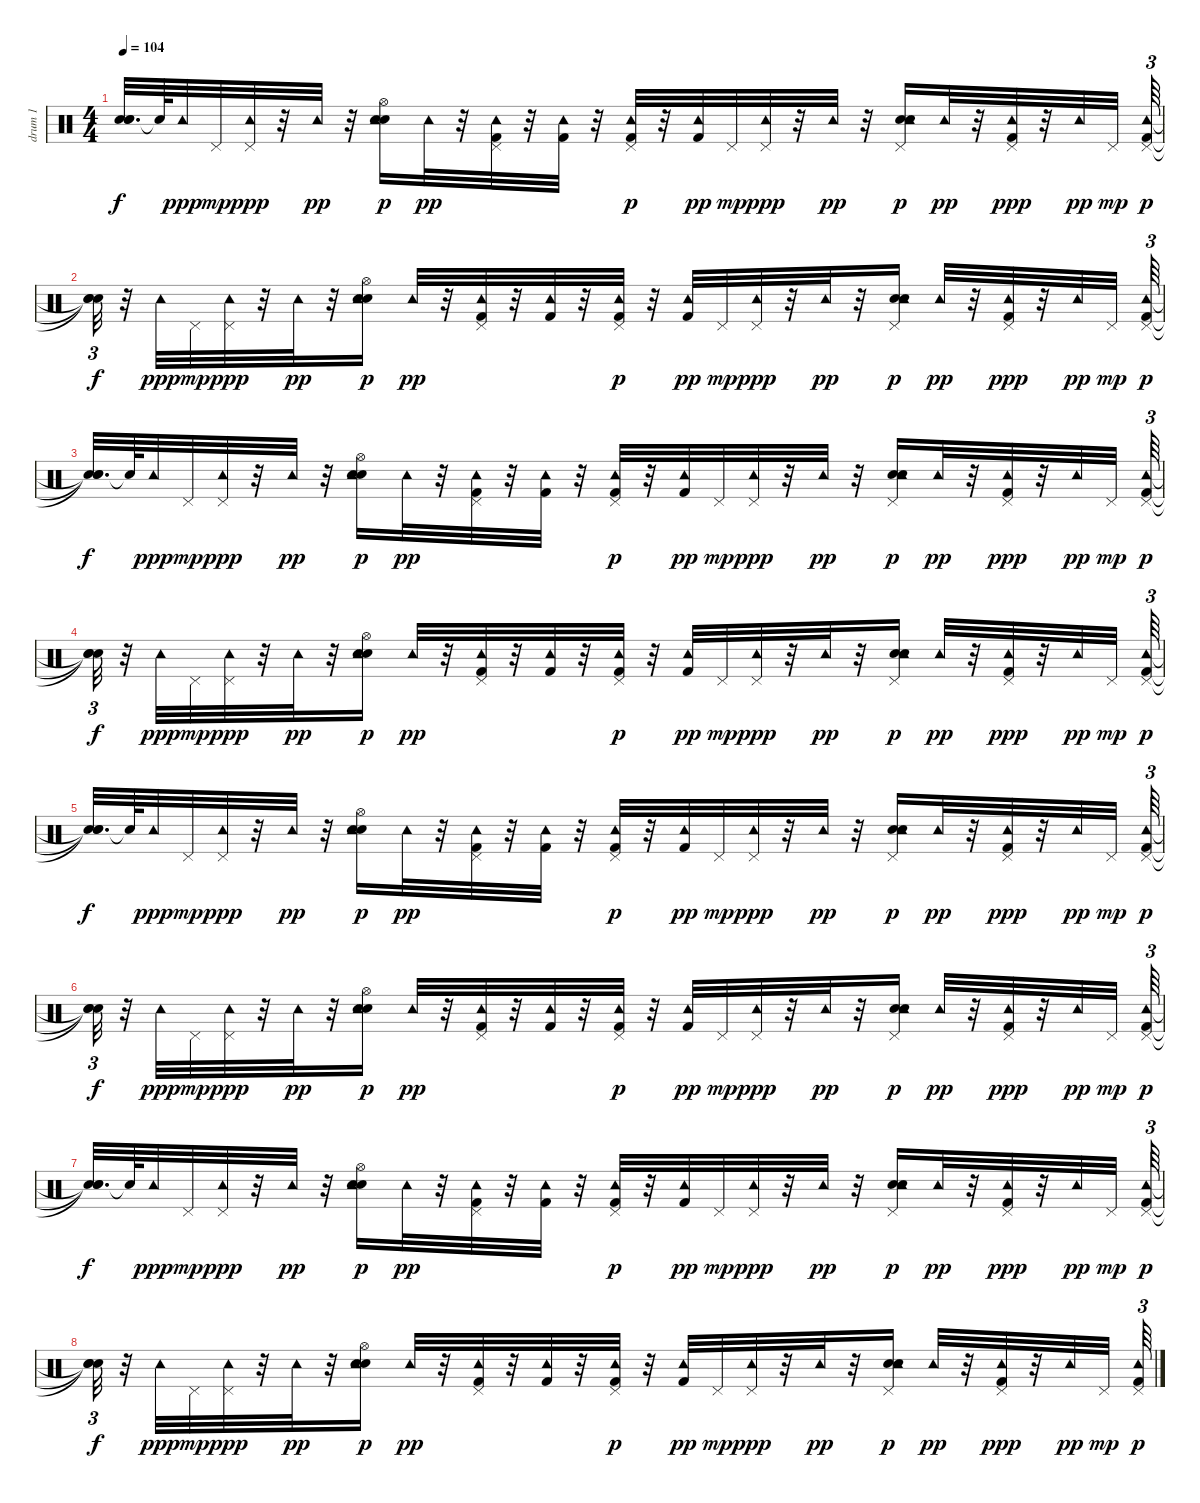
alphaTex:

\track ("drum 1" "drum 1") {instrument percussion}
\staff {score}
\articulation defaults
\ts (4 4)
\tempo 104
\clef neutral
\ks c
("Snare (hit)"{t} "Snare (hit)"{t} "Snare (hit)"{t}).32{d dy f} "Snare (hit)"{t}.64 "Tambourine (hit)".32{dy ppp} "Pedal Hi-Hat (hit)".32{dy mp} ("Pedal Hi-Hat (hit)" "Tambourine (hit)").32{dy ppp} r.32 "Tambourine (hit)".32{dy pp} r.32 ("Hand Clap (hit)" "Electric Snare (hit)" "Hi-Hat (open)" "Tambourine (hit)").16{dy p} "Tambourine (hit)".32{dy pp} r.32 ("Kick (hit) 2" "Pedal Hi-Hat (hit)" "Tambourine (hit)").32 r.32 ("Kick (hit) 2" "Tambourine (hit)").32 r.32 ("Kick (hit) 2" "Pedal Hi-Hat (hit)" "Tambourine (hit)").32{dy p} r.32 ("Kick (hit) 2" "Tambourine (hit)").32{dy pp} "Pedal Hi-Hat (hit)".32{dy mp} ("Pedal Hi-Hat (hit)" "Tambourine (hit)").32{dy ppp} r.32 "Tambourine (hit)".32{dy pp} r.32 ("Hand Clap (hit)" "Electric Snare (hit)" "Pedal Hi-Hat (hit)" "Tambourine (hit)").16{dy p} "Tambourine (hit)".32{dy pp} r.32 ("Kick (hit) 2" "Pedal Hi-Hat (hit)" "Tambourine (hit)").32{dy ppp} r.32 "Tambourine (hit)".32{dy pp} "Pedal Hi-Hat (hit)".32{dy mp} ("Kick (hit) 2" "Pedal Hi-Hat (hit)" "Tambourine (hit)").64{tu (3 2) dy p} |
("Snare (hit)"{t} "Snare (hit)"{t} "Snare (hit)"{t}).32{tu (3 2) dy f} r.32 "Tambourine (hit)".32{dy ppp} "Pedal Hi-Hat (hit)".32{dy mp} ("Pedal Hi-Hat (hit)" "Tambourine (hit)").32{dy ppp} r.32 "Tambourine (hit)".32{dy pp} r.32 ("Hand Clap (hit)" "Electric Snare (hit)" "Hi-Hat (open)" "Tambourine (hit)").16{dy p} "Tambourine (hit)".32{dy pp} r.32 ("Kick (hit) 2" "Pedal Hi-Hat (hit)" "Tambourine (hit)").32 r.32 ("Kick (hit) 2" "Tambourine (hit)").32 r.32 ("Kick (hit) 2" "Pedal Hi-Hat (hit)" "Tambourine (hit)").32{dy p} r.32 ("Kick (hit) 2" "Tambourine (hit)").32{dy pp} "Pedal Hi-Hat (hit)".32{dy mp} ("Pedal Hi-Hat (hit)" "Tambourine (hit)").32{dy ppp} r.32 "Tambourine (hit)".32{dy pp} r.32 ("Hand Clap (hit)" "Electric Snare (hit)" "Pedal Hi-Hat (hit)" "Tambourine (hit)").16{dy p} "Tambourine (hit)".32{dy pp} r.32 ("Kick (hit) 2" "Pedal Hi-Hat (hit)" "Tambourine (hit)").32{dy ppp} r.32 "Tambourine (hit)".32{dy pp} "Pedal Hi-Hat (hit)".32{dy mp beam splitsecondary} ("Kick (hit) 2" "Pedal Hi-Hat (hit)" "Tambourine (hit)").64{tu (3 2) dy p} |
("Snare (hit)"{t} "Snare (hit)"{t} "Snare (hit)"{t}).32{d dy f} "Snare (hit)"{t}.64 "Tambourine (hit)".32{dy ppp} "Pedal Hi-Hat (hit)".32{dy mp} ("Pedal Hi-Hat (hit)" "Tambourine (hit)").32{dy ppp} r.32 "Tambourine (hit)".32{dy pp} r.32 ("Hand Clap (hit)" "Electric Snare (hit)" "Hi-Hat (open)" "Tambourine (hit)").16{dy p} "Tambourine (hit)".32{dy pp} r.32 ("Kick (hit) 2" "Pedal Hi-Hat (hit)" "Tambourine (hit)").32 r.32 ("Kick (hit) 2" "Tambourine (hit)").32 r.32 ("Kick (hit) 2" "Pedal Hi-Hat (hit)" "Tambourine (hit)").32{dy p} r.32 ("Kick (hit) 2" "Tambourine (hit)").32{dy pp} "Pedal Hi-Hat (hit)".32{dy mp} ("Pedal Hi-Hat (hit)" "Tambourine (hit)").32{dy ppp} r.32 "Tambourine (hit)".32{dy pp} r.32 ("Hand Clap (hit)" "Electric Snare (hit)" "Pedal Hi-Hat (hit)" "Tambourine (hit)").16{dy p} "Tambourine (hit)".32{dy pp} r.32 ("Kick (hit) 2" "Pedal Hi-Hat (hit)" "Tambourine (hit)").32{dy ppp} r.32 "Tambourine (hit)".32{dy pp} "Pedal Hi-Hat (hit)".32{dy mp} ("Kick (hit) 2" "Pedal Hi-Hat (hit)" "Tambourine (hit)").64{tu (3 2) dy p} |
("Snare (hit)"{t} "Snare (hit)"{t} "Snare (hit)"{t}).32{tu (3 2) dy f} r.32 "Tambourine (hit)".32{dy ppp} "Pedal Hi-Hat (hit)".32{dy mp} ("Pedal Hi-Hat (hit)" "Tambourine (hit)").32{dy ppp} r.32 "Tambourine (hit)".32{dy pp} r.32 ("Hand Clap (hit)" "Electric Snare (hit)" "Hi-Hat (open)" "Tambourine (hit)").16{dy p} "Tambourine (hit)".32{dy pp} r.32 ("Kick (hit) 2" "Pedal Hi-Hat (hit)" "Tambourine (hit)").32 r.32 ("Kick (hit) 2" "Tambourine (hit)").32 r.32 ("Kick (hit) 2" "Pedal Hi-Hat (hit)" "Tambourine (hit)").32{dy p} r.32 ("Kick (hit) 2" "Tambourine (hit)").32{dy pp} "Pedal Hi-Hat (hit)".32{dy mp} ("Pedal Hi-Hat (hit)" "Tambourine (hit)").32{dy ppp} r.32 "Tambourine (hit)".32{dy pp} r.32 ("Hand Clap (hit)" "Electric Snare (hit)" "Pedal Hi-Hat (hit)" "Tambourine (hit)").16{dy p} "Tambourine (hit)".32{dy pp} r.32 ("Kick (hit) 2" "Pedal Hi-Hat (hit)" "Tambourine (hit)").32{dy ppp} r.32 "Tambourine (hit)".32{dy pp} "Pedal Hi-Hat (hit)".32{dy mp beam splitsecondary} ("Kick (hit) 2" "Pedal Hi-Hat (hit)" "Tambourine (hit)").64{tu (3 2) dy p} |
("Snare (hit)"{t} "Snare (hit)"{t} "Snare (hit)"{t}).32{d dy f} "Snare (hit)"{t}.64 "Tambourine (hit)".32{dy ppp} "Pedal Hi-Hat (hit)".32{dy mp} ("Pedal Hi-Hat (hit)" "Tambourine (hit)").32{dy ppp} r.32 "Tambourine (hit)".32{dy pp} r.32 ("Hand Clap (hit)" "Electric Snare (hit)" "Hi-Hat (open)" "Tambourine (hit)").16{dy p} "Tambourine (hit)".32{dy pp} r.32 ("Kick (hit) 2" "Pedal Hi-Hat (hit)" "Tambourine (hit)").32 r.32 ("Kick (hit) 2" "Tambourine (hit)").32 r.32 ("Kick (hit) 2" "Pedal Hi-Hat (hit)" "Tambourine (hit)").32{dy p} r.32 ("Kick (hit) 2" "Tambourine (hit)").32{dy pp} "Pedal Hi-Hat (hit)".32{dy mp} ("Pedal Hi-Hat (hit)" "Tambourine (hit)").32{dy ppp} r.32 "Tambourine (hit)".32{dy pp} r.32 ("Hand Clap (hit)" "Electric Snare (hit)" "Pedal Hi-Hat (hit)" "Tambourine (hit)").16{dy p} "Tambourine (hit)".32{dy pp} r.32 ("Kick (hit) 2" "Pedal Hi-Hat (hit)" "Tambourine (hit)").32{dy ppp} r.32 "Tambourine (hit)".32{dy pp} "Pedal Hi-Hat (hit)".32{dy mp} ("Kick (hit) 2" "Pedal Hi-Hat (hit)" "Tambourine (hit)").64{tu (3 2) dy p} |
("Snare (hit)"{t} "Snare (hit)"{t} "Snare (hit)"{t}).32{tu (3 2) dy f} r.32 "Tambourine (hit)".32{dy ppp} "Pedal Hi-Hat (hit)".32{dy mp} ("Pedal Hi-Hat (hit)" "Tambourine (hit)").32{dy ppp} r.32 "Tambourine (hit)".32{dy pp} r.32 ("Hand Clap (hit)" "Electric Snare (hit)" "Hi-Hat (open)" "Tambourine (hit)").16{dy p} "Tambourine (hit)".32{dy pp} r.32 ("Kick (hit) 2" "Pedal Hi-Hat (hit)" "Tambourine (hit)").32 r.32 ("Kick (hit) 2" "Tambourine (hit)").32 r.32 ("Kick (hit) 2" "Pedal Hi-Hat (hit)" "Tambourine (hit)").32{dy p} r.32 ("Kick (hit) 2" "Tambourine (hit)").32{dy pp} "Pedal Hi-Hat (hit)".32{dy mp} ("Pedal Hi-Hat (hit)" "Tambourine (hit)").32{dy ppp} r.32 "Tambourine (hit)".32{dy pp} r.32 ("Hand Clap (hit)" "Electric Snare (hit)" "Pedal Hi-Hat (hit)" "Tambourine (hit)").16{dy p} "Tambourine (hit)".32{dy pp} r.32 ("Kick (hit) 2" "Pedal Hi-Hat (hit)" "Tambourine (hit)").32{dy ppp} r.32 "Tambourine (hit)".32{dy pp} "Pedal Hi-Hat (hit)".32{dy mp beam splitsecondary} ("Kick (hit) 2" "Pedal Hi-Hat (hit)" "Tambourine (hit)").64{tu (3 2) dy p} |
("Snare (hit)"{t} "Snare (hit)"{t} "Snare (hit)"{t}).32{d dy f} "Snare (hit)"{t}.64 "Tambourine (hit)".32{dy ppp} "Pedal Hi-Hat (hit)".32{dy mp} ("Pedal Hi-Hat (hit)" "Tambourine (hit)").32{dy ppp} r.32 "Tambourine (hit)".32{dy pp} r.32 ("Hand Clap (hit)" "Electric Snare (hit)" "Hi-Hat (open)" "Tambourine (hit)").16{dy p} "Tambourine (hit)".32{dy pp} r.32 ("Kick (hit) 2" "Pedal Hi-Hat (hit)" "Tambourine (hit)").32 r.32 ("Kick (hit) 2" "Tambourine (hit)").32 r.32 ("Kick (hit) 2" "Pedal Hi-Hat (hit)" "Tambourine (hit)").32{dy p} r.32 ("Kick (hit) 2" "Tambourine (hit)").32{dy pp} "Pedal Hi-Hat (hit)".32{dy mp} ("Pedal Hi-Hat (hit)" "Tambourine (hit)").32{dy ppp} r.32 "Tambourine (hit)".32{dy pp} r.32 ("Hand Clap (hit)" "Electric Snare (hit)" "Pedal Hi-Hat (hit)" "Tambourine (hit)").16{dy p} "Tambourine (hit)".32{dy pp} r.32 ("Kick (hit) 2" "Pedal Hi-Hat (hit)" "Tambourine (hit)").32{dy ppp} r.32 "Tambourine (hit)".32{dy pp} "Pedal Hi-Hat (hit)".32{dy mp} ("Kick (hit) 2" "Pedal Hi-Hat (hit)" "Tambourine (hit)").64{tu (3 2) dy p} |
("Snare (hit)"{t} "Snare (hit)"{t} "Snare (hit)"{t}).32{tu (3 2) dy f} r.32 "Tambourine (hit)".32{dy ppp} "Pedal Hi-Hat (hit)".32{dy mp} ("Pedal Hi-Hat (hit)" "Tambourine (hit)").32{dy ppp} r.32 "Tambourine (hit)".32{dy pp} r.32 ("Hand Clap (hit)" "Electric Snare (hit)" "Hi-Hat (open)" "Tambourine (hit)").16{dy p} "Tambourine (hit)".32{dy pp} r.32 ("Kick (hit) 2" "Pedal Hi-Hat (hit)" "Tambourine (hit)").32 r.32 ("Kick (hit) 2" "Tambourine (hit)").32 r.32 ("Kick (hit) 2" "Pedal Hi-Hat (hit)" "Tambourine (hit)").32{dy p} r.32 ("Kick (hit) 2" "Tambourine (hit)").32{dy pp} "Pedal Hi-Hat (hit)".32{dy mp} ("Pedal Hi-Hat (hit)" "Tambourine (hit)").32{dy ppp} r.32 "Tambourine (hit)".32{dy pp} r.32 ("Hand Clap (hit)" "Electric Snare (hit)" "Pedal Hi-Hat (hit)" "Tambourine (hit)").16{dy p} "Tambourine (hit)".32{dy pp} r.32 ("Kick (hit) 2" "Pedal Hi-Hat (hit)" "Tambourine (hit)").32{dy ppp} r.32 "Tambourine (hit)".32{dy pp} "Pedal Hi-Hat (hit)".32{dy mp beam splitsecondary} ("Kick (hit) 2" "Pedal Hi-Hat (hit)" "Tambourine (hit)").64{tu (3 2) dy p}
